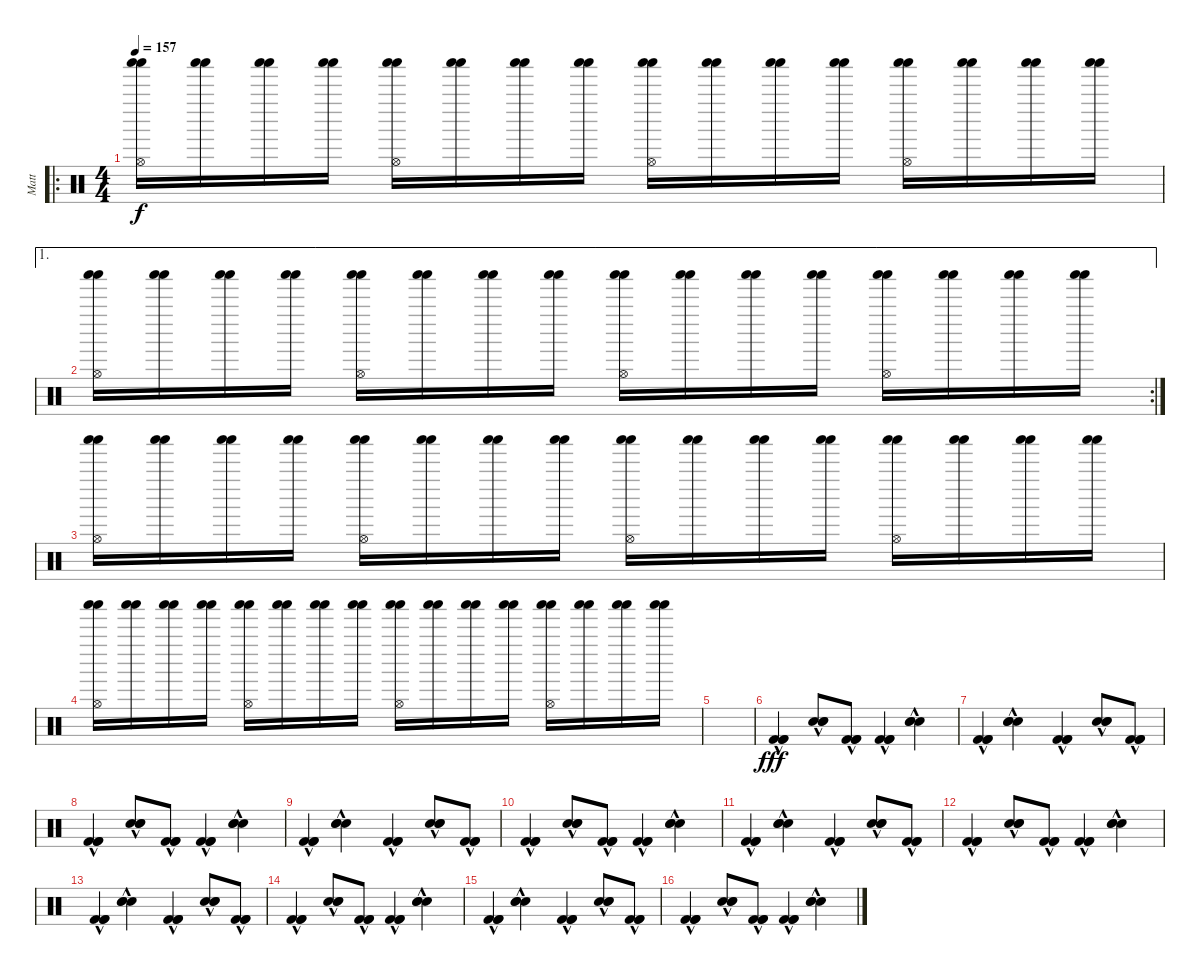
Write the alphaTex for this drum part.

\track ("Matt" "Matt") {instrument percussion}
\staff {score}
\articulation defaults
\ro
\ts (4 4)
\tempo 157
\clef neutral
\ks c
("Shaker (hit)" "Shaker (hit)" "Hi-Hat (open)").16{dy f} ("Shaker (hit)" "Shaker (hit)").16 ("Shaker (hit)" "Shaker (hit)").16 ("Shaker (hit)" "Shaker (hit)").16 ("Shaker (hit)" "Shaker (hit)" "Hi-Hat (open)").16 ("Shaker (hit)" "Shaker (hit)").16 ("Shaker (hit)" "Shaker (hit)").16 ("Shaker (hit)" "Shaker (hit)").16 ("Shaker (hit)" "Shaker (hit)" "Hi-Hat (open)").16 ("Shaker (hit)" "Shaker (hit)").16 ("Shaker (hit)" "Shaker (hit)").16 ("Shaker (hit)" "Shaker (hit)").16 ("Shaker (hit)" "Shaker (hit)" "Hi-Hat (open)").16 ("Shaker (hit)" "Shaker (hit)").16 ("Shaker (hit)" "Shaker (hit)").16 ("Shaker (hit)" "Shaker (hit)").16 |
\ae 1
\rc 2
("Shaker (hit)" "Shaker (hit)" "Hi-Hat (open)").16 ("Shaker (hit)" "Shaker (hit)").16 ("Shaker (hit)" "Shaker (hit)").16 ("Shaker (hit)" "Shaker (hit)").16 ("Shaker (hit)" "Shaker (hit)" "Hi-Hat (open)").16 ("Shaker (hit)" "Shaker (hit)").16 ("Shaker (hit)" "Shaker (hit)").16 ("Shaker (hit)" "Shaker (hit)").16 ("Shaker (hit)" "Shaker (hit)" "Hi-Hat (open)").16 ("Shaker (hit)" "Shaker (hit)").16 ("Shaker (hit)" "Shaker (hit)").16 ("Shaker (hit)" "Shaker (hit)").16 ("Shaker (hit)" "Shaker (hit)" "Hi-Hat (open)").16 ("Shaker (hit)" "Shaker (hit)").16 ("Shaker (hit)" "Shaker (hit)").16 ("Shaker (hit)" "Shaker (hit)").16 |
("Shaker (hit)" "Shaker (hit)" "Hi-Hat (open)").16 ("Shaker (hit)" "Shaker (hit)").16 ("Shaker (hit)" "Shaker (hit)").16 ("Shaker (hit)" "Shaker (hit)").16 ("Shaker (hit)" "Shaker (hit)" "Hi-Hat (open)").16 ("Shaker (hit)" "Shaker (hit)").16 ("Shaker (hit)" "Shaker (hit)").16 ("Shaker (hit)" "Shaker (hit)").16 ("Shaker (hit)" "Shaker (hit)" "Hi-Hat (open)").16 ("Shaker (hit)" "Shaker (hit)").16 ("Shaker (hit)" "Shaker (hit)").16 ("Shaker (hit)" "Shaker (hit)").16 ("Shaker (hit)" "Shaker (hit)" "Hi-Hat (open)").16 ("Shaker (hit)" "Shaker (hit)").16 ("Shaker (hit)" "Shaker (hit)").16 ("Shaker (hit)" "Shaker (hit)").16 |
("Shaker (hit)" "Shaker (hit)" "Hi-Hat (open)").16 ("Shaker (hit)" "Shaker (hit)").16 ("Shaker (hit)" "Shaker (hit)").16 ("Shaker (hit)" "Shaker (hit)").16 ("Shaker (hit)" "Shaker (hit)" "Hi-Hat (open)").16 ("Shaker (hit)" "Shaker (hit)").16 ("Shaker (hit)" "Shaker (hit)").16 ("Shaker (hit)" "Shaker (hit)").16 ("Shaker (hit)" "Shaker (hit)" "Hi-Hat (open)").16 ("Shaker (hit)" "Shaker (hit)").16 ("Shaker (hit)" "Shaker (hit)").16 ("Shaker (hit)" "Shaker (hit)").16 ("Shaker (hit)" "Shaker (hit)" "Hi-Hat (open)").16 ("Shaker (hit)" "Shaker (hit)").16 ("Shaker (hit)" "Shaker (hit)").16 ("Shaker (hit)" "Shaker (hit)").16 |
|
("Kick (hit) 2"{hac} "Kick (hit) 2"{hac} "Kick (hit) 2"{hac}).4{dy fff} ("Snare (hit) 2"{hac} "Snare (hit) 2"{hac} "Snare (hit) 2"{hac}).8 ("Kick (hit) 2"{hac} "Kick (hit) 2"{hac} "Kick (hit) 2"{hac}).8 ("Kick (hit) 2"{hac} "Kick (hit) 2"{hac} "Kick (hit) 2"{hac}).4 ("Snare (hit) 2"{hac} "Snare (hit) 2"{hac} "Snare (hit) 2"{hac}).4 |
("Kick (hit) 2"{hac} "Kick (hit) 2"{hac} "Kick (hit) 2"{hac}).4 ("Snare (hit) 2"{hac} "Snare (hit) 2"{hac} "Snare (hit) 2"{hac}).4 ("Kick (hit) 2"{hac} "Kick (hit) 2"{hac} "Kick (hit) 2"{hac}).4 ("Snare (hit) 2"{hac} "Snare (hit) 2"{hac} "Snare (hit) 2"{hac}).8 ("Kick (hit) 2"{hac} "Kick (hit) 2"{hac} "Kick (hit) 2"{hac}).8 |
("Kick (hit) 2"{hac} "Kick (hit) 2"{hac} "Kick (hit) 2"{hac}).4 ("Snare (hit) 2"{hac} "Snare (hit) 2"{hac} "Snare (hit) 2"{hac}).8 ("Kick (hit) 2"{hac} "Kick (hit) 2"{hac} "Kick (hit) 2"{hac}).8 ("Kick (hit) 2"{hac} "Kick (hit) 2"{hac} "Kick (hit) 2"{hac}).4 ("Snare (hit) 2"{hac} "Snare (hit) 2"{hac} "Snare (hit) 2"{hac}).4 |
("Kick (hit) 2"{hac} "Kick (hit) 2"{hac} "Kick (hit) 2"{hac}).4 ("Snare (hit) 2"{hac} "Snare (hit) 2"{hac} "Snare (hit) 2"{hac}).4 ("Kick (hit) 2"{hac} "Kick (hit) 2"{hac} "Kick (hit) 2"{hac}).4 ("Snare (hit) 2"{hac} "Snare (hit) 2"{hac} "Snare (hit) 2"{hac}).8 ("Kick (hit) 2"{hac} "Kick (hit) 2"{hac} "Kick (hit) 2"{hac}).8 |
("Kick (hit) 2"{hac} "Kick (hit) 2"{hac} "Kick (hit) 2"{hac}).4 ("Snare (hit) 2"{hac} "Snare (hit) 2"{hac} "Snare (hit) 2"{hac}).8 ("Kick (hit) 2"{hac} "Kick (hit) 2"{hac} "Kick (hit) 2"{hac}).8 ("Kick (hit) 2"{hac} "Kick (hit) 2"{hac} "Kick (hit) 2"{hac}).4 ("Snare (hit) 2"{hac} "Snare (hit) 2"{hac} "Snare (hit) 2"{hac}).4 |
("Kick (hit) 2"{hac} "Kick (hit) 2"{hac} "Kick (hit) 2"{hac}).4 ("Snare (hit) 2"{hac} "Snare (hit) 2"{hac} "Snare (hit) 2"{hac}).4 ("Kick (hit) 2"{hac} "Kick (hit) 2"{hac} "Kick (hit) 2"{hac}).4 ("Snare (hit) 2"{hac} "Snare (hit) 2"{hac} "Snare (hit) 2"{hac}).8 ("Kick (hit) 2"{hac} "Kick (hit) 2"{hac} "Kick (hit) 2"{hac}).8 |
("Kick (hit) 2"{hac} "Kick (hit) 2"{hac} "Kick (hit) 2"{hac}).4 ("Snare (hit) 2"{hac} "Snare (hit) 2"{hac} "Snare (hit) 2"{hac}).8 ("Kick (hit) 2"{hac} "Kick (hit) 2"{hac} "Kick (hit) 2"{hac}).8 ("Kick (hit) 2"{hac} "Kick (hit) 2"{hac} "Kick (hit) 2"{hac}).4 ("Snare (hit) 2"{hac} "Snare (hit) 2"{hac} "Snare (hit) 2"{hac}).4 |
("Kick (hit) 2"{hac} "Kick (hit) 2"{hac} "Kick (hit) 2"{hac}).4 ("Snare (hit) 2"{hac} "Snare (hit) 2"{hac} "Snare (hit) 2"{hac}).4 ("Kick (hit) 2"{hac} "Kick (hit) 2"{hac} "Kick (hit) 2"{hac}).4 ("Snare (hit) 2"{hac} "Snare (hit) 2"{hac} "Snare (hit) 2"{hac}).8 ("Kick (hit) 2"{hac} "Kick (hit) 2"{hac} "Kick (hit) 2"{hac}).8 |
("Kick (hit) 2"{hac} "Kick (hit) 2"{hac} "Kick (hit) 2"{hac}).4 ("Snare (hit) 2"{hac} "Snare (hit) 2"{hac} "Snare (hit) 2"{hac}).8 ("Kick (hit) 2"{hac} "Kick (hit) 2"{hac} "Kick (hit) 2"{hac}).8 ("Kick (hit) 2"{hac} "Kick (hit) 2"{hac} "Kick (hit) 2"{hac}).4 ("Snare (hit) 2"{hac} "Snare (hit) 2"{hac} "Snare (hit) 2"{hac}).4 |
("Kick (hit) 2"{hac} "Kick (hit) 2"{hac} "Kick (hit) 2"{hac}).4 ("Snare (hit) 2"{hac} "Snare (hit) 2"{hac} "Snare (hit) 2"{hac}).4 ("Kick (hit) 2"{hac} "Kick (hit) 2"{hac} "Kick (hit) 2"{hac}).4 ("Snare (hit) 2"{hac} "Snare (hit) 2"{hac} "Snare (hit) 2"{hac}).8 ("Kick (hit) 2"{hac} "Kick (hit) 2"{hac} "Kick (hit) 2"{hac}).8 |
("Kick (hit) 2"{hac} "Kick (hit) 2"{hac} "Kick (hit) 2"{hac}).4 ("Snare (hit) 2"{hac} "Snare (hit) 2"{hac} "Snare (hit) 2"{hac}).8 ("Kick (hit) 2"{hac} "Kick (hit) 2"{hac} "Kick (hit) 2"{hac}).8 ("Kick (hit) 2"{hac} "Kick (hit) 2"{hac} "Kick (hit) 2"{hac}).4 ("Snare (hit) 2"{hac} "Snare (hit) 2"{hac} "Snare (hit) 2"{hac}).4
